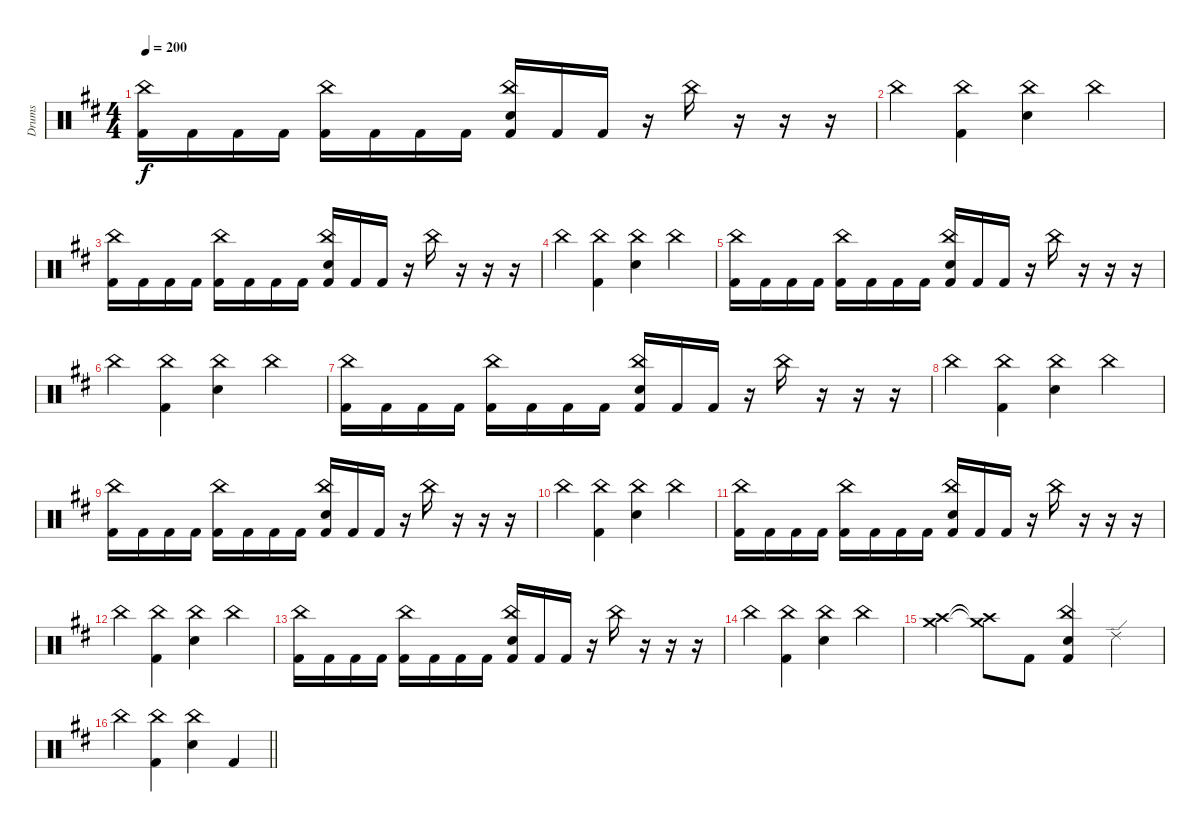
\track ("Drums" "Drums") {instrument percussion}
\staff {score}
\articulation defaults
\ts (4 4)
\tempo 200
\clef neutral
\ks bminor
("Kick (hit) 2" "China (hit)").16{dy f} "Kick (hit) 2".16 "Kick (hit) 2".16 "Kick (hit) 2".16 ("Kick (hit) 2" "China (hit)").16 "Kick (hit) 2".16 "Kick (hit) 2".16 "Kick (hit) 2".16 ("Kick (hit) 2" "Electric Snare (hit)" "China (hit)").16 "Kick (hit) 2".16 "Kick (hit) 2".16 r.16 "China (hit)".16 r.16 r.16 r.16 |
"China (hit)".4 ("Kick (hit) 2" "China (hit)").4 ("Electric Snare (hit)" "China (hit)").4 "China (hit)".4 |
("Kick (hit) 2" "China (hit)").16 "Kick (hit) 2".16 "Kick (hit) 2".16 "Kick (hit) 2".16 ("Kick (hit) 2" "China (hit)").16 "Kick (hit) 2".16 "Kick (hit) 2".16 "Kick (hit) 2".16 ("Kick (hit) 2" "Electric Snare (hit)" "China (hit)").16 "Kick (hit) 2".16 "Kick (hit) 2".16 r.16 "China (hit)".16 r.16 r.16 r.16 |
"China (hit)".4 ("Kick (hit) 2" "China (hit)").4 ("Electric Snare (hit)" "China (hit)").4 "China (hit)".4 |
("Kick (hit) 2" "China (hit)").16 "Kick (hit) 2".16 "Kick (hit) 2".16 "Kick (hit) 2".16 ("Kick (hit) 2" "China (hit)").16 "Kick (hit) 2".16 "Kick (hit) 2".16 "Kick (hit) 2".16 ("Kick (hit) 2" "Electric Snare (hit)" "China (hit)").16 "Kick (hit) 2".16 "Kick (hit) 2".16 r.16 "China (hit)".16 r.16 r.16 r.16 |
"China (hit)".4 ("Kick (hit) 2" "China (hit)").4 ("Electric Snare (hit)" "China (hit)").4 "China (hit)".4 |
("Kick (hit) 2" "China (hit)").16 "Kick (hit) 2".16 "Kick (hit) 2".16 "Kick (hit) 2".16 ("Kick (hit) 2" "China (hit)").16 "Kick (hit) 2".16 "Kick (hit) 2".16 "Kick (hit) 2".16 ("Kick (hit) 2" "Electric Snare (hit)" "China (hit)").16 "Kick (hit) 2".16 "Kick (hit) 2".16 r.16 "China (hit)".16 r.16 r.16 r.16 |
"China (hit)".4 ("Kick (hit) 2" "China (hit)").4 ("Electric Snare (hit)" "China (hit)").4 "China (hit)".4 |
("Kick (hit) 2" "China (hit)").16 "Kick (hit) 2".16 "Kick (hit) 2".16 "Kick (hit) 2".16 ("Kick (hit) 2" "China (hit)").16 "Kick (hit) 2".16 "Kick (hit) 2".16 "Kick (hit) 2".16 ("Kick (hit) 2" "Electric Snare (hit)" "China (hit)").16 "Kick (hit) 2".16 "Kick (hit) 2".16 r.16 "China (hit)".16 r.16 r.16 r.16 |
"China (hit)".4 ("Kick (hit) 2" "China (hit)").4 ("Electric Snare (hit)" "China (hit)").4 "China (hit)".4 |
("Kick (hit) 2" "China (hit)").16 "Kick (hit) 2".16 "Kick (hit) 2".16 "Kick (hit) 2".16 ("Kick (hit) 2" "China (hit)").16 "Kick (hit) 2".16 "Kick (hit) 2".16 "Kick (hit) 2".16 ("Kick (hit) 2" "Electric Snare (hit)" "China (hit)").16 "Kick (hit) 2".16 "Kick (hit) 2".16 r.16 "China (hit)".16 r.16 r.16 r.16 |
"China (hit)".4 ("Kick (hit) 2" "China (hit)").4 ("Electric Snare (hit)" "China (hit)").4 "China (hit)".4 |
("Kick (hit) 2" "China (hit)").16 "Kick (hit) 2".16 "Kick (hit) 2".16 "Kick (hit) 2".16 ("Kick (hit) 2" "China (hit)").16 "Kick (hit) 2".16 "Kick (hit) 2".16 "Kick (hit) 2".16 ("Kick (hit) 2" "Electric Snare (hit)" "China (hit)").16 "Kick (hit) 2".16 "Kick (hit) 2".16 r.16 "China (hit)".16 r.16 r.16 r.16 |
"China (hit)".4 ("Kick (hit) 2" "China (hit)").4 ("Electric Snare (hit)" "China (hit)").4 "China (hit)".4 |
("Crash high (hit)" "Crash medium (hit)").4 ("Crash high (hit)"{t} "Crash medium (hit)"{t}).8 "Kick (hit) 2".8 ("Electric Snare (hit)" "Kick (hit) 2" "China (hit)").4 "Ride (edge) 2".4 |
\barLineRight lightlight "China (hit)".4
("Kick (hit) 2" "China (hit)").4 ("Electric Snare (hit)" "China (hit)").4 "Kick (hit) 2".4
